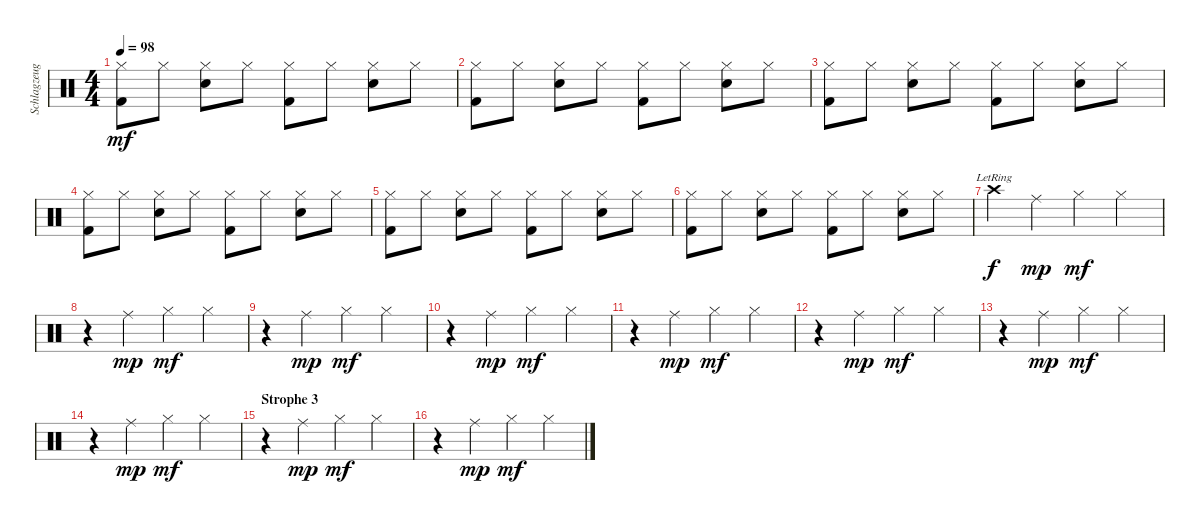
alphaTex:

\track ("Schlagzeug" "Schlagzeug") {instrument percussion}
\staff {score}
\articulation defaults
\ts (4 4)
\tempo 98
\clef neutral
\ks c
("Hi-Hat (closed)" "Kick (hit) 2").8{dy mf} "Hi-Hat (closed)".8 ("Hi-Hat (closed)" "Electric Snare (hit)").8 "Hi-Hat (closed)".8 ("Hi-Hat (closed)" "Kick (hit) 2").8 "Hi-Hat (closed)".8 ("Hi-Hat (closed)" "Electric Snare (hit)").8 "Hi-Hat (closed)".8 |
("Hi-Hat (closed)" "Kick (hit) 2").8 "Hi-Hat (closed)".8 ("Hi-Hat (closed)" "Electric Snare (hit)").8 "Hi-Hat (closed)".8 ("Hi-Hat (closed)" "Kick (hit) 2").8 "Hi-Hat (closed)".8 ("Hi-Hat (closed)" "Electric Snare (hit)").8 "Hi-Hat (closed)".8 |
("Hi-Hat (closed)" "Kick (hit) 2").8 "Hi-Hat (closed)".8 ("Hi-Hat (closed)" "Electric Snare (hit)").8 "Hi-Hat (closed)".8 ("Hi-Hat (closed)" "Kick (hit) 2").8 "Hi-Hat (closed)".8 ("Hi-Hat (closed)" "Electric Snare (hit)").8 "Hi-Hat (closed)".8 |
("Hi-Hat (closed)" "Kick (hit) 2").8 "Hi-Hat (closed)".8 ("Hi-Hat (closed)" "Electric Snare (hit)").8 "Hi-Hat (closed)".8 ("Hi-Hat (closed)" "Kick (hit) 2").8 "Hi-Hat (closed)".8 ("Hi-Hat (closed)" "Electric Snare (hit)").8 "Hi-Hat (closed)".8 |
("Hi-Hat (closed)" "Kick (hit) 2").8 "Hi-Hat (closed)".8 ("Hi-Hat (closed)" "Electric Snare (hit)").8 "Hi-Hat (closed)".8 ("Hi-Hat (closed)" "Kick (hit) 2").8 "Hi-Hat (closed)".8 ("Hi-Hat (closed)" "Electric Snare (hit)").8 "Hi-Hat (closed)".8 |
("Hi-Hat (closed)" "Kick (hit) 2").8 "Hi-Hat (closed)".8 ("Hi-Hat (closed)" "Electric Snare (hit)").8 "Hi-Hat (closed)".8 ("Hi-Hat (closed)" "Kick (hit) 2").8 "Hi-Hat (closed)".8 ("Hi-Hat (closed)" "Electric Snare (hit)").8 "Hi-Hat (closed)".8 |
"Crash high (hit)"{lr}.4{dy f} "Ride (middle)".4{dy mp} "Hi-Hat (closed)".4{dy mf} "Hi-Hat (closed)".4 |
r.4 "Ride (middle)".4{dy mp} "Hi-Hat (closed)".4{dy mf} "Hi-Hat (closed)".4 |
r.4 "Ride (middle)".4{dy mp} "Hi-Hat (closed)".4{dy mf} "Hi-Hat (closed)".4 |
r.4 "Ride (middle)".4{dy mp} "Hi-Hat (closed)".4{dy mf} "Hi-Hat (closed)".4 |
r.4 "Ride (middle)".4{dy mp} "Hi-Hat (closed)".4{dy mf} "Hi-Hat (closed)".4 |
r.4 "Ride (middle)".4{dy mp} "Hi-Hat (closed)".4{dy mf} "Hi-Hat (closed)".4 |
r.4 "Ride (middle)".4{dy mp} "Hi-Hat (closed)".4{dy mf} "Hi-Hat (closed)".4 |
r.4 "Ride (middle)".4{dy mp} "Hi-Hat (closed)".4{dy mf} "Hi-Hat (closed)".4 |
\section ("" "Strophe 3")
r.4 "Ride (middle)".4{dy mp} "Hi-Hat (closed)".4{dy mf} "Hi-Hat (closed)".4 |
r.4 "Ride (middle)".4{dy mp} "Hi-Hat (closed)".4{dy mf} "Hi-Hat (closed)".4
